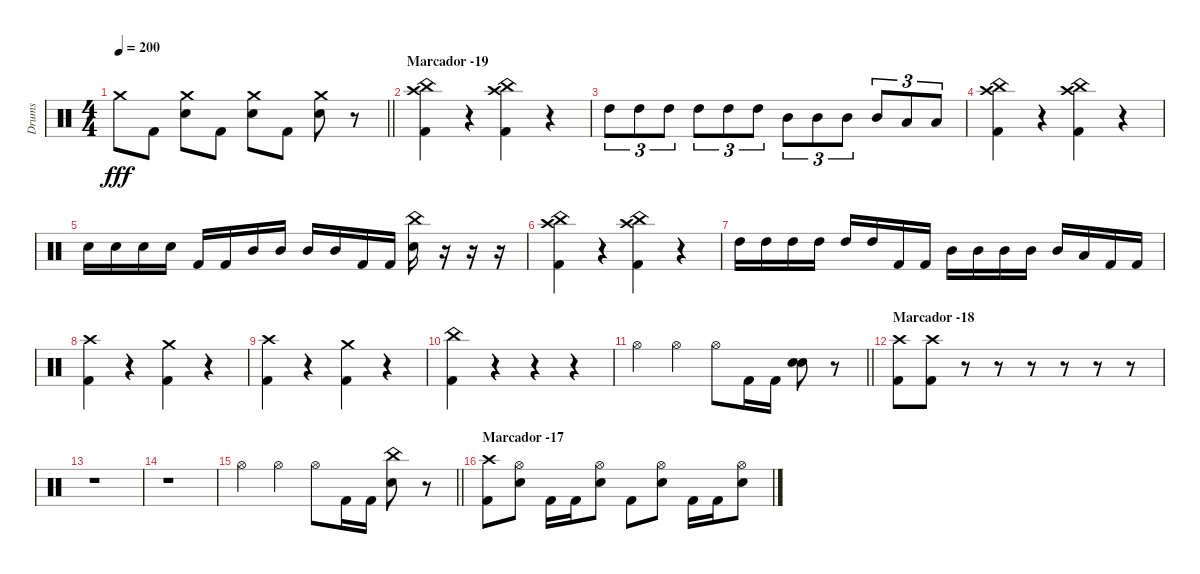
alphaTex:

\track ("Drums" "Drums") {instrument percussion}
\staff {score}
\articulation defaults
\ts (4 4)
\tempo 200
\clef neutral
\barLineRight lightlight
\ks c "Crash medium (hit)".8{dy fff} "Kick (hit) 2".8
("Crash medium (hit)" "Electric Snare (hit)").8 "Kick (hit) 2".8 ("Crash medium (hit)" "Electric Snare (hit)").8 "Kick (hit) 2".8 ("Crash medium (hit)" "Electric Snare (hit)").8 r.8 |
\section ("" "Marcador -19")
("Crash high (hit)" "China (hit)" "Kick (hit) 2").4 r.4 ("Crash high (hit)" "China (hit)" "Kick (hit) 2").4 r.4 |
"High Tom (hit)".8{tu (3 2)} "High Tom (hit)".8{tu (3 2)} "High Tom (hit)".8{tu (3 2)} "High Tom (hit)".8{tu (3 2)} "High Tom (hit)".8{tu (3 2)} "High Tom (hit)".8{tu (3 2)} "Mid Tom (hit)".8{tu (3 2)} "Mid Tom (hit)".8{tu (3 2)} "Mid Tom (hit)".8{tu (3 2)} "Mid Tom (hit)".8{tu (3 2)} "Low Tom (hit)".8{tu (3 2)} "Low Tom (hit)".8{tu (3 2)} |
("Crash high (hit)" "China (hit)" "Kick (hit) 2").4 r.4 ("Crash high (hit)" "China (hit)" "Kick (hit) 2").4 r.4 |
"Electric Snare (hit)".16 "Electric Snare (hit)".16 "Electric Snare (hit)".16 "Electric Snare (hit)".16 "Kick (hit) 2".16 "Kick (hit) 2".16 "Mid Tom (hit)".16 "Mid Tom (hit)".16 "Mid Tom (hit)".16 "Mid Tom (hit)".16 "Kick (hit) 2".16 "Kick (hit) 2".16 ("China (hit)" "Electric Snare (hit)").16 r.16 r.16 r.16 |
("Crash high (hit)" "China (hit)" "Kick (hit) 2").4 r.4 ("Crash high (hit)" "China (hit)" "Kick (hit) 2").4 r.4 |
"High Tom (hit)".16 "High Tom (hit)".16 "High Tom (hit)".16 "High Tom (hit)".16 "High Tom (hit)".16 "High Tom (hit)".16 "Kick (hit) 2".16 "Kick (hit) 2".16 "Mid Tom (hit)".16 "Mid Tom (hit)".16 "Mid Tom (hit)".16 "Mid Tom (hit)".16 "Mid Tom (hit)".16 "Low Tom (hit)".16 "Kick (hit) 2".16 "Kick (hit) 2".16 |
("Crash high (hit)" "Kick (hit) 2").4 r.4 ("Crash medium (hit)" "Kick (hit) 2").4 r.4 |
("Crash high (hit)" "Kick (hit) 2").4 r.4 ("Crash medium (hit)" "Kick (hit) 2").4 r.4 |
("China (hit)" "Kick (hit) 2").4 r.4 r.4 r.4 |
\barLineRight lightlight "Hi-Hat (open)".4 "Hi-Hat (open)".4 "Hi-Hat (open)".8 "Kick (hit) 2".16 "Kick (hit) 2".16
("Electric Snare (hit)" "Electric Snare (hit)").8 r.8 |
\section ("" "Marcador -18")
("Crash high (hit)" "Kick (hit) 2").8 ("Crash high (hit)" "Kick (hit) 2").8 r.8 r.8 r.8 r.8 r.8 r.8 |
r.1 |
r.1 |
\barLineRight lightlight "Hi-Hat (open)".4 "Hi-Hat (open)".4 "Hi-Hat (open)".8 "Kick (hit) 2".16 "Kick (hit) 2".16
("China (hit)" "Electric Snare (hit)").8 r.8 |
\section ("" "Marcador -17")
("Crash high (hit)" "Kick (hit) 2").8 ("Hi-Hat (open)" "Electric Snare (hit)").8 "Kick (hit) 2".16 "Kick (hit) 2".16 ("Hi-Hat (open)" "Electric Snare (hit)").8 "Kick (hit) 2".8 ("Hi-Hat (open)" "Electric Snare (hit)").8 "Kick (hit) 2".16 "Kick (hit) 2".16 ("Hi-Hat (open)" "Electric Snare (hit)").8
